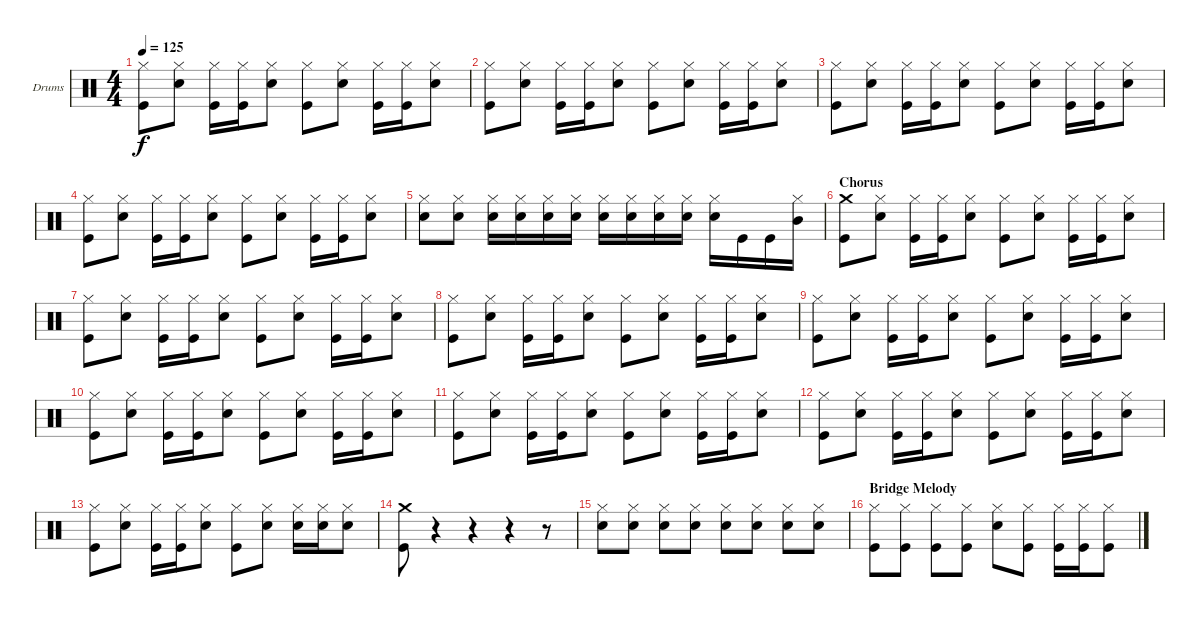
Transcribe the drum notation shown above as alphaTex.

\defaultSystemsLayout 4
\bracketExtendMode groupsimilarinstruments
\firstSystemTrackNameOrientation horizontal
\otherSystemsTrackNameOrientation horizontal
\track ("Drum" "Drums") {instrument percussion}
\staff {score}
\articulation defaults
\ts (4 4)
\tempo 125
\clef neutral
\ks c
("Hi-Hat (closed)" "Kick (hit)").8{dy f} ("Hi-Hat (closed)" "Snare (hit) 2").8 ("Hi-Hat (closed)" "Kick (hit)").16 ("Hi-Hat (closed)" "Kick (hit)").16 ("Hi-Hat (closed)" "Snare (hit) 2").8 ("Hi-Hat (closed)" "Kick (hit)").8 ("Hi-Hat (closed)" "Snare (hit) 2").8 ("Hi-Hat (closed)" "Kick (hit)").16 ("Hi-Hat (closed)" "Kick (hit)").16 ("Hi-Hat (closed)" "Snare (hit) 2").8 |
("Hi-Hat (closed)" "Kick (hit)").8 ("Hi-Hat (closed)" "Snare (hit) 2").8 ("Hi-Hat (closed)" "Kick (hit)").16 ("Hi-Hat (closed)" "Kick (hit)").16 ("Hi-Hat (closed)" "Snare (hit) 2").8 ("Hi-Hat (closed)" "Kick (hit)").8 ("Hi-Hat (closed)" "Snare (hit) 2").8 ("Hi-Hat (closed)" "Kick (hit)").16 ("Hi-Hat (closed)" "Kick (hit)").16 ("Hi-Hat (closed)" "Snare (hit) 2").8 |
("Hi-Hat (closed)" "Kick (hit)").8 ("Hi-Hat (closed)" "Snare (hit) 2").8 ("Hi-Hat (closed)" "Kick (hit)").16 ("Hi-Hat (closed)" "Kick (hit)").16 ("Hi-Hat (closed)" "Snare (hit) 2").8 ("Hi-Hat (closed)" "Kick (hit)").8 ("Hi-Hat (closed)" "Snare (hit) 2").8 ("Hi-Hat (closed)" "Kick (hit)").16 ("Hi-Hat (closed)" "Kick (hit)").16 ("Hi-Hat (closed)" "Snare (hit) 2").8 |
("Hi-Hat (closed)" "Kick (hit)").8 ("Hi-Hat (closed)" "Snare (hit) 2").8 ("Hi-Hat (closed)" "Kick (hit)").16 ("Hi-Hat (closed)" "Kick (hit)").16 ("Hi-Hat (closed)" "Snare (hit) 2").8 ("Hi-Hat (closed)" "Kick (hit)").8 ("Hi-Hat (closed)" "Snare (hit) 2").8 ("Hi-Hat (closed)" "Kick (hit)").16 ("Hi-Hat (closed)" "Kick (hit)").16 ("Hi-Hat (closed)" "Snare (hit) 2").8 |
("Hi-Hat (closed)" "Snare (hit) 2").8 ("Hi-Hat (closed)" "Snare (hit) 2").8 ("Hi-Hat (closed)" "Snare (hit) 2").16 ("Hi-Hat (closed)" "Snare (hit) 2").16 ("Hi-Hat (closed)" "Snare (hit) 2").16 ("Hi-Hat (closed)" "Snare (hit) 2").16 ("Hi-Hat (closed)" "Snare (hit) 2").16 ("Hi-Hat (closed)" "Snare (hit) 2").16 ("Hi-Hat (closed)" "Snare (hit) 2").16 ("Hi-Hat (closed)" "Snare (hit) 2").16 ("Hi-Hat (closed)" "Snare (hit) 2").16 "Kick (hit)".16 "Kick (hit)".16 ("Hi-Hat (closed)" "Mid Tom (hit)").16 |
\section ("" "Chorus")
("Crash medium (hit)" "Kick (hit)").8 ("Hi-Hat (closed)" "Snare (hit) 2").8 ("Hi-Hat (closed)" "Kick (hit)").16 ("Hi-Hat (closed)" "Kick (hit)").16 ("Hi-Hat (closed)" "Snare (hit) 2").8 ("Hi-Hat (closed)" "Kick (hit)").8 ("Hi-Hat (closed)" "Snare (hit) 2").8 ("Hi-Hat (closed)" "Kick (hit)").16 ("Hi-Hat (closed)" "Kick (hit)").16 ("Hi-Hat (closed)" "Snare (hit) 2").8 |
("Hi-Hat (closed)" "Kick (hit)").8 ("Hi-Hat (closed)" "Snare (hit) 2").8 ("Hi-Hat (closed)" "Kick (hit)").16 ("Hi-Hat (closed)" "Kick (hit)").16 ("Hi-Hat (closed)" "Snare (hit) 2").8 ("Hi-Hat (closed)" "Kick (hit)").8 ("Hi-Hat (closed)" "Snare (hit) 2").8 ("Hi-Hat (closed)" "Kick (hit)").16 ("Hi-Hat (closed)" "Kick (hit)").16 ("Hi-Hat (closed)" "Snare (hit) 2").8 |
("Hi-Hat (closed)" "Kick (hit)").8 ("Hi-Hat (closed)" "Snare (hit) 2").8 ("Hi-Hat (closed)" "Kick (hit)").16 ("Hi-Hat (closed)" "Kick (hit)").16 ("Hi-Hat (closed)" "Snare (hit) 2").8 ("Hi-Hat (closed)" "Kick (hit)").8 ("Hi-Hat (closed)" "Snare (hit) 2").8 ("Hi-Hat (closed)" "Kick (hit)").16 ("Hi-Hat (closed)" "Kick (hit)").16 ("Hi-Hat (closed)" "Snare (hit) 2").8 |
("Hi-Hat (closed)" "Kick (hit)").8 ("Hi-Hat (closed)" "Snare (hit) 2").8 ("Hi-Hat (closed)" "Kick (hit)").16 ("Hi-Hat (closed)" "Kick (hit)").16 ("Hi-Hat (closed)" "Snare (hit) 2").8 ("Hi-Hat (closed)" "Kick (hit)").8 ("Hi-Hat (closed)" "Snare (hit) 2").8 ("Hi-Hat (closed)" "Kick (hit)").16 ("Hi-Hat (closed)" "Kick (hit)").16 ("Hi-Hat (closed)" "Snare (hit) 2").8 |
("Hi-Hat (closed)" "Kick (hit)").8 ("Hi-Hat (closed)" "Snare (hit) 2").8 ("Hi-Hat (closed)" "Kick (hit)").16 ("Hi-Hat (closed)" "Kick (hit)").16 ("Hi-Hat (closed)" "Snare (hit) 2").8 ("Hi-Hat (closed)" "Kick (hit)").8 ("Hi-Hat (closed)" "Snare (hit) 2").8 ("Hi-Hat (closed)" "Kick (hit)").16 ("Hi-Hat (closed)" "Kick (hit)").16 ("Hi-Hat (closed)" "Snare (hit) 2").8 |
("Hi-Hat (closed)" "Kick (hit)").8 ("Hi-Hat (closed)" "Snare (hit) 2").8 ("Hi-Hat (closed)" "Kick (hit)").16 ("Hi-Hat (closed)" "Kick (hit)").16 ("Hi-Hat (closed)" "Snare (hit) 2").8 ("Hi-Hat (closed)" "Kick (hit)").8 ("Hi-Hat (closed)" "Snare (hit) 2").8 ("Hi-Hat (closed)" "Kick (hit)").16 ("Hi-Hat (closed)" "Kick (hit)").16 ("Hi-Hat (closed)" "Snare (hit) 2").8 |
("Hi-Hat (closed)" "Kick (hit)").8 ("Hi-Hat (closed)" "Snare (hit) 2").8 ("Hi-Hat (closed)" "Kick (hit)").16 ("Hi-Hat (closed)" "Kick (hit)").16 ("Hi-Hat (closed)" "Snare (hit) 2").8 ("Hi-Hat (closed)" "Kick (hit)").8 ("Hi-Hat (closed)" "Snare (hit) 2").8 ("Hi-Hat (closed)" "Kick (hit)").16 ("Hi-Hat (closed)" "Kick (hit)").16 ("Hi-Hat (closed)" "Snare (hit) 2").8 |
("Hi-Hat (closed)" "Kick (hit)").8 ("Hi-Hat (closed)" "Snare (hit) 2").8 ("Hi-Hat (closed)" "Kick (hit)").16 ("Hi-Hat (closed)" "Kick (hit)").16 ("Hi-Hat (closed)" "Snare (hit) 2").8 ("Hi-Hat (closed)" "Kick (hit)").8 ("Hi-Hat (closed)" "Snare (hit) 2").8 ("Hi-Hat (closed)" "Snare (hit) 2").16 ("Hi-Hat (closed)" "Snare (hit) 2").16 ("Hi-Hat (closed)" "Snare (hit) 2").8 |
("Crash medium (hit)" "Kick (hit)").8 r.4 r.4 r.4 r.8 |
("Hi-Hat (closed)" "Snare (hit) 2").8 ("Hi-Hat (closed)" "Snare (hit) 2").8 ("Hi-Hat (closed)" "Snare (hit) 2").8 ("Hi-Hat (closed)" "Snare (hit) 2").8 ("Hi-Hat (closed)" "Snare (hit) 2").8 ("Hi-Hat (closed)" "Snare (hit) 2").8 ("Hi-Hat (closed)" "Snare (hit) 2").8 ("Hi-Hat (closed)" "Snare (hit) 2").8 |
\section ("" "Bridge Melody")
("Hi-Hat (closed)" "Kick (hit)").8 ("Hi-Hat (closed)" "Kick (hit)").8 ("Hi-Hat (closed)" "Kick (hit)").8 ("Hi-Hat (closed)" "Kick (hit)").8 ("Hi-Hat (closed)" "Snare (hit) 2").8 ("Hi-Hat (closed)" "Kick (hit)").8 ("Hi-Hat (closed)" "Kick (hit)").16 ("Hi-Hat (closed)" "Kick (hit)").16 ("Hi-Hat (closed)" "Kick (hit)").8
